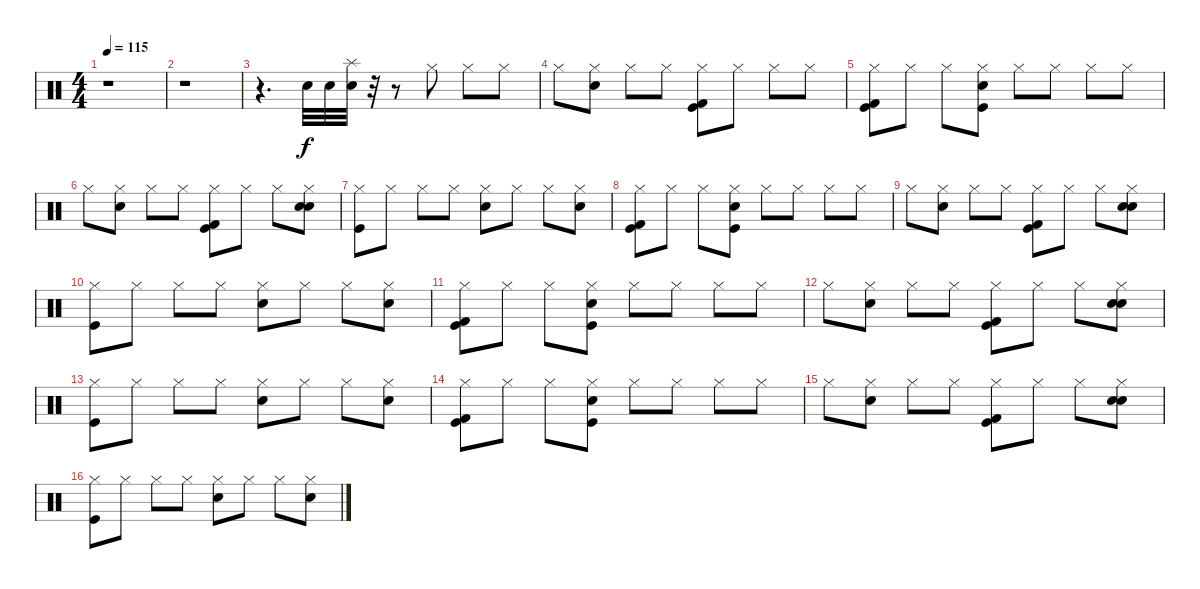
\track "" {instrument percussion}
\staff {score}
\articulation defaults
\ts (4 4)
\tempo 115
\clef neutral
\ks c
r.1{dy f} |
r.1 |
r.4{d} "Snare (hit) 2".32 "Snare (hit) 2".32 ("Electric Snare (hit)" "Splash (hit)").32 r.32 r.8 "Hi-Hat (closed)".8 "Hi-Hat (closed)".8 "Hi-Hat (closed)".8 |
"Hi-Hat (closed)".8 ("Hi-Hat (closed)" "Electric Snare (hit)").8 "Hi-Hat (closed)".8 "Hi-Hat (closed)".8 ("Kick (hit) 2" "Hi-Hat (closed)" "Kick (hit)").8 "Hi-Hat (closed)".8 "Hi-Hat (closed)".8 "Hi-Hat (closed)".8 |
("Kick (hit) 2" "Hi-Hat (closed)" "Kick (hit)").8 "Hi-Hat (closed)".8 "Hi-Hat (closed)".8 ("Electric Snare (hit)" "Hi-Hat (closed)" "Kick (hit)").8 "Hi-Hat (closed)".8 "Hi-Hat (closed)".8 "Hi-Hat (closed)".8 "Hi-Hat (closed)".8 |
"Hi-Hat (closed)".8 ("Hi-Hat (closed)" "Electric Snare (hit)").8 "Hi-Hat (closed)".8 "Hi-Hat (closed)".8 ("Kick (hit) 2" "Hi-Hat (closed)" "Kick (hit)").8 "Hi-Hat (closed)".8 "Hi-Hat (closed)".8 ("Electric Snare (hit)" "Hi-Hat (closed)" "Electric Snare (hit)").8 |
("Hi-Hat (closed)" "Kick (hit)").8 "Hi-Hat (closed)".8 "Hi-Hat (closed)".8 "Hi-Hat (closed)".8 ("Hi-Hat (closed)" "Electric Snare (hit)").8 "Hi-Hat (closed)".8 "Hi-Hat (closed)".8 ("Hi-Hat (closed)" "Electric Snare (hit)").8 |
("Kick (hit) 2" "Hi-Hat (closed)" "Kick (hit)").8 "Hi-Hat (closed)".8 "Hi-Hat (closed)".8 ("Electric Snare (hit)" "Hi-Hat (closed)" "Kick (hit)").8 "Hi-Hat (closed)".8 "Hi-Hat (closed)".8 "Hi-Hat (closed)".8 "Hi-Hat (closed)".8 |
"Hi-Hat (closed)".8 ("Hi-Hat (closed)" "Electric Snare (hit)").8 "Hi-Hat (closed)".8 "Hi-Hat (closed)".8 ("Kick (hit) 2" "Hi-Hat (closed)" "Kick (hit)").8 "Hi-Hat (closed)".8 "Hi-Hat (closed)".8 ("Electric Snare (hit)" "Hi-Hat (closed)" "Electric Snare (hit)").8 |
("Hi-Hat (closed)" "Kick (hit)").8 "Hi-Hat (closed)".8 "Hi-Hat (closed)".8 "Hi-Hat (closed)".8 ("Hi-Hat (closed)" "Electric Snare (hit)").8 "Hi-Hat (closed)".8 "Hi-Hat (closed)".8 ("Hi-Hat (closed)" "Electric Snare (hit)").8 |
("Kick (hit) 2" "Hi-Hat (closed)" "Kick (hit)").8 "Hi-Hat (closed)".8 "Hi-Hat (closed)".8 ("Electric Snare (hit)" "Hi-Hat (closed)" "Kick (hit)").8 "Hi-Hat (closed)".8 "Hi-Hat (closed)".8 "Hi-Hat (closed)".8 "Hi-Hat (closed)".8 |
"Hi-Hat (closed)".8 ("Hi-Hat (closed)" "Electric Snare (hit)").8 "Hi-Hat (closed)".8 "Hi-Hat (closed)".8 ("Kick (hit) 2" "Hi-Hat (closed)" "Kick (hit)").8 "Hi-Hat (closed)".8 "Hi-Hat (closed)".8 ("Electric Snare (hit)" "Hi-Hat (closed)" "Electric Snare (hit)").8 |
("Hi-Hat (closed)" "Kick (hit)").8 "Hi-Hat (closed)".8 "Hi-Hat (closed)".8 "Hi-Hat (closed)".8 ("Hi-Hat (closed)" "Electric Snare (hit)").8 "Hi-Hat (closed)".8 "Hi-Hat (closed)".8 ("Hi-Hat (closed)" "Electric Snare (hit)").8 |
("Kick (hit) 2" "Hi-Hat (closed)" "Kick (hit)").8 "Hi-Hat (closed)".8 "Hi-Hat (closed)".8 ("Electric Snare (hit)" "Hi-Hat (closed)" "Kick (hit)").8 "Hi-Hat (closed)".8 "Hi-Hat (closed)".8 "Hi-Hat (closed)".8 "Hi-Hat (closed)".8 |
"Hi-Hat (closed)".8 ("Hi-Hat (closed)" "Electric Snare (hit)").8 "Hi-Hat (closed)".8 "Hi-Hat (closed)".8 ("Kick (hit) 2" "Hi-Hat (closed)" "Kick (hit)").8 "Hi-Hat (closed)".8 "Hi-Hat (closed)".8 ("Electric Snare (hit)" "Hi-Hat (closed)" "Electric Snare (hit)").8 |
("Hi-Hat (closed)" "Kick (hit)").8 "Hi-Hat (closed)".8 "Hi-Hat (closed)".8 "Hi-Hat (closed)".8 ("Hi-Hat (closed)" "Electric Snare (hit)").8 "Hi-Hat (closed)".8 "Hi-Hat (closed)".8 ("Hi-Hat (closed)" "Electric Snare (hit)").8
